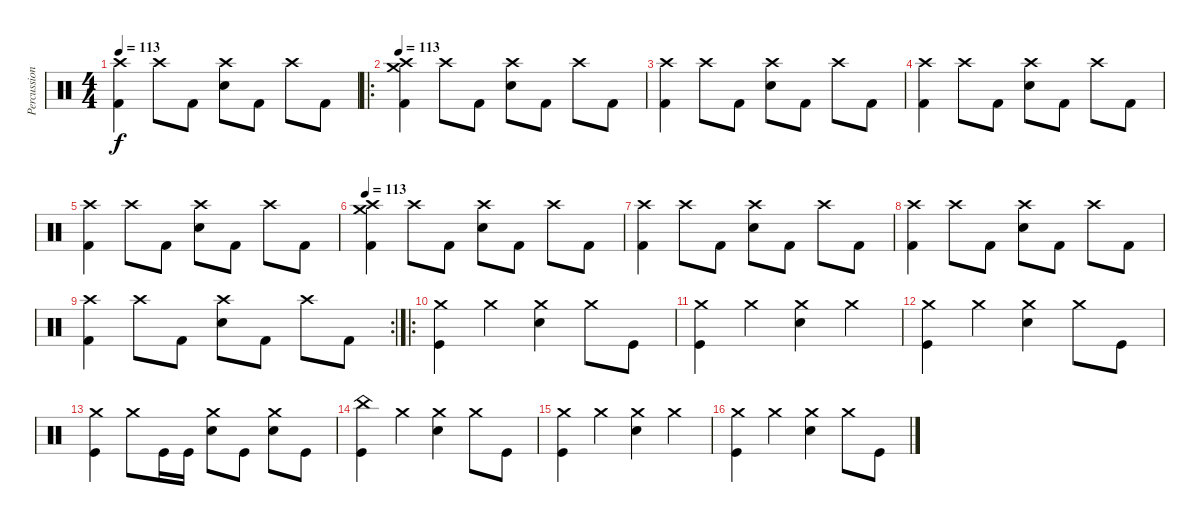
\track ("Percussion" "Percussion") {instrument percussion}
\staff {score}
\articulation defaults
\ts (4 4)
\tempo 113
\clef neutral
\ks c
("Kick (hit) 2" "Crash high (hit)").4{dy f} "Crash high (hit)".8 "Kick (hit) 2".8 ("Crash high (hit)" "Snare (hit) 2").8 "Kick (hit) 2".8 "Crash high (hit)".8 "Kick (hit) 2".8 |
\ro
\tempo 113
("Kick (hit) 2" "Crash high (hit)" "Crash medium (hit)").4 "Crash high (hit)".8 "Kick (hit) 2".8 ("Crash high (hit)" "Snare (hit) 2").8 "Kick (hit) 2".8 "Crash high (hit)".8 "Kick (hit) 2".8 |
("Kick (hit) 2" "Crash high (hit)").4 "Crash high (hit)".8 "Kick (hit) 2".8 ("Crash high (hit)" "Snare (hit) 2").8 "Kick (hit) 2".8 "Crash high (hit)".8 "Kick (hit) 2".8 |
("Kick (hit) 2" "Crash high (hit)").4 "Crash high (hit)".8 "Kick (hit) 2".8 ("Crash high (hit)" "Snare (hit) 2").8 "Kick (hit) 2".8 "Crash high (hit)".8 "Kick (hit) 2".8 |
("Kick (hit) 2" "Crash high (hit)").4 "Crash high (hit)".8 "Kick (hit) 2".8 ("Crash high (hit)" "Snare (hit) 2").8 "Kick (hit) 2".8 "Crash high (hit)".8 "Kick (hit) 2".8 |
\tempo 113
("Kick (hit) 2" "Crash high (hit)" "Crash medium (hit)").4 "Crash high (hit)".8 "Kick (hit) 2".8 ("Crash high (hit)" "Snare (hit) 2").8 "Kick (hit) 2".8 "Crash high (hit)".8 "Kick (hit) 2".8 |
("Kick (hit) 2" "Crash high (hit)").4 "Crash high (hit)".8 "Kick (hit) 2".8 ("Crash high (hit)" "Snare (hit) 2").8 "Kick (hit) 2".8 "Crash high (hit)".8 "Kick (hit) 2".8 |
("Kick (hit) 2" "Crash high (hit)").4 "Crash high (hit)".8 "Kick (hit) 2".8 ("Crash high (hit)" "Snare (hit) 2").8 "Kick (hit) 2".8 "Crash high (hit)".8 "Kick (hit) 2".8 |
\rc 2
("Kick (hit) 2" "Crash high (hit)").4 "Crash high (hit)".8 "Kick (hit) 2".8 ("Crash high (hit)" "Snare (hit) 2").8 "Kick (hit) 2".8 "Crash high (hit)".8 "Kick (hit) 2".8 |
\ro
("Kick (hit)" "Crash medium (hit)").4 "Crash medium (hit)".4 ("Snare (hit) 2" "Crash medium (hit)").4 "Crash medium (hit)".8 "Kick (hit)".8 |
("Kick (hit)" "Crash medium (hit)").4 "Crash medium (hit)".4 ("Snare (hit) 2" "Crash medium (hit)").4 "Crash medium (hit)".4 |
("Kick (hit)" "Crash medium (hit)").4 "Crash medium (hit)".4 ("Snare (hit) 2" "Crash medium (hit)").4 "Crash medium (hit)".8 "Kick (hit)".8 |
("Kick (hit)" "Crash medium (hit)").4 "Crash medium (hit)".8 "Kick (hit)".16 "Kick (hit)".16 ("Snare (hit) 2" "Crash medium (hit)").8 "Kick (hit)".8 ("Snare (hit) 2" "Crash medium (hit)").8 "Kick (hit)".8 |
("Kick (hit)" "China (hit)").4 "Crash medium (hit)".4 ("Snare (hit) 2" "Crash medium (hit)").4 "Crash medium (hit)".8 "Kick (hit)".8 |
("Kick (hit)" "Crash medium (hit)").4 "Crash medium (hit)".4 ("Snare (hit) 2" "Crash medium (hit)").4 "Crash medium (hit)".4 |
("Kick (hit)" "Crash medium (hit)").4 "Crash medium (hit)".4 ("Snare (hit) 2" "Crash medium (hit)").4 "Crash medium (hit)".8 "Kick (hit)".8
